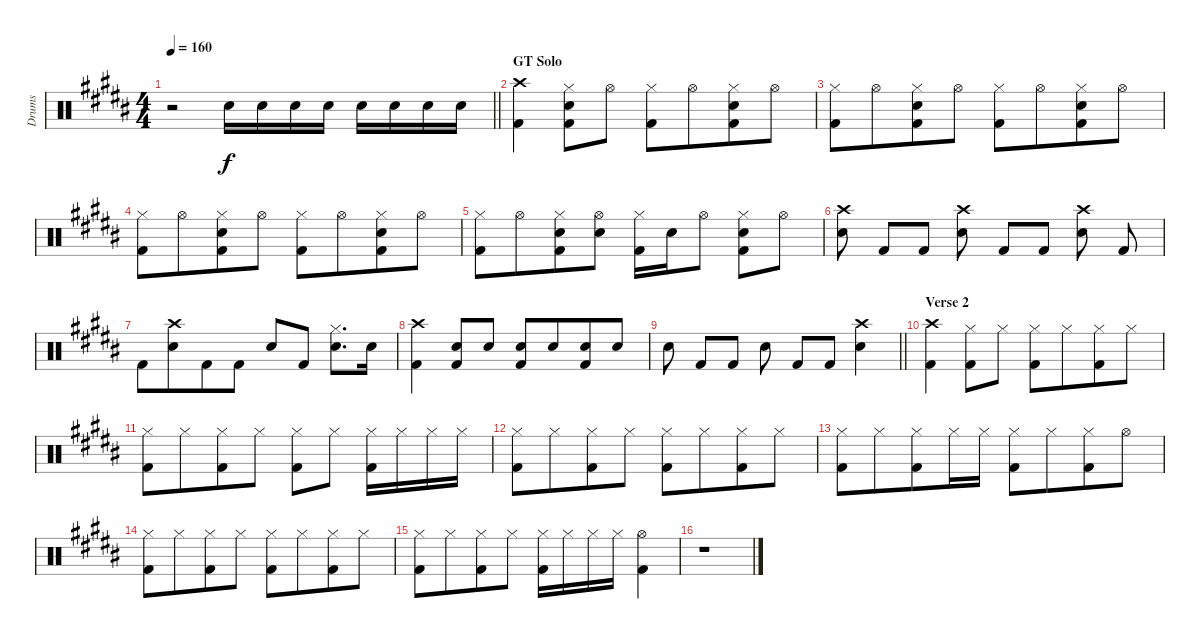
\track ("Drums" "Drums") {instrument percussion}
\staff {score}
\articulation defaults
\ts (4 4)
\tempo 160
\clef neutral
\barLineRight lightlight
\ks b
r.2{dy f} "Snare (hit) 2".16 "Snare (hit) 2".16 "Snare (hit) 2".16 "Snare (hit) 2".16 "Snare (hit) 2".16 "Snare (hit) 2".16 "Snare (hit) 2".16 "Snare (hit) 2".16 |
\section ("" "GT Solo")
("Kick (hit) 2" "Crash high (hit)").4 ("Hi-Hat (closed)" "Snare (hit) 2" "Kick (hit) 2").8 "Hi-Hat (open)".8 ("Hi-Hat (closed)" "Kick (hit) 2").8 "Hi-Hat (open)".8{beam merge} ("Hi-Hat (closed)" "Snare (hit) 2" "Kick (hit) 2").8 "Hi-Hat (open)".8 |
("Hi-Hat (closed)" "Kick (hit) 2").8 "Hi-Hat (open)".8{beam merge} ("Hi-Hat (closed)" "Snare (hit) 2" "Kick (hit) 2").8 "Hi-Hat (open)".8 ("Hi-Hat (closed)" "Kick (hit) 2").8 "Hi-Hat (open)".8{beam merge} ("Hi-Hat (closed)" "Snare (hit) 2" "Kick (hit) 2").8 "Hi-Hat (open)".8 |
("Hi-Hat (closed)" "Kick (hit) 2").8 "Hi-Hat (open)".8{beam merge} ("Hi-Hat (closed)" "Snare (hit) 2" "Kick (hit) 2").8 "Hi-Hat (open)".8 ("Hi-Hat (closed)" "Kick (hit) 2").8 "Hi-Hat (open)".8{beam merge} ("Hi-Hat (closed)" "Snare (hit) 2" "Kick (hit) 2").8 "Hi-Hat (open)".8 |
("Hi-Hat (closed)" "Kick (hit) 2").8 "Hi-Hat (open)".8{beam merge} ("Hi-Hat (closed)" "Snare (hit) 2" "Kick (hit) 2").8 ("Hi-Hat (open)" "Snare (hit) 2").8 ("Hi-Hat (closed)" "Kick (hit) 2").16 "Snare (hit) 2".16 "Hi-Hat (open)".8 ("Hi-Hat (closed)" "Snare (hit) 2" "Kick (hit) 2").8 "Hi-Hat (open)".8 |
("Snare (hit) 2" "Crash high (hit)").8{beam Down beam split} "Kick (hit) 2".8{beam merge} "Kick (hit) 2".8{beam split} ("Snare (hit) 2" "Crash high (hit)").8 "Kick (hit) 2".8 "Kick (hit) 2".8 ("Snare (hit) 2" "Crash high (hit)").8{beam split} "Kick (hit) 2".8 |
"Kick (hit) 2".8 ("Snare (hit) 2" "Crash high (hit)").8{beam merge} "Kick (hit) 2".8 "Kick (hit) 2".8 "Snare (hit) 2".8 "Kick (hit) 2".8 ("Hi-Hat (closed)" "Snare (hit) 2").8{d} "Snare (hit) 2".16 |
("Kick (hit) 2" "Crash high (hit)").4 ("Snare (hit) 2" "Kick (hit) 2").8 "Snare (hit) 2".8 ("Snare (hit) 2" "Kick (hit) 2").8 "Snare (hit) 2".8{beam merge} ("Snare (hit) 2" "Kick (hit) 2").8 "Snare (hit) 2".8 |
\barLineRight lightlight "Snare (hit) 2".8{beam split} "Kick (hit) 2".8{beam merge} "Kick (hit) 2".8{beam split} "Snare (hit) 2".8 "Kick (hit) 2".8 "Kick (hit) 2".8
("Snare (hit) 2" "Crash high (hit)").4 |
\section ("" "Verse 2")
("Kick (hit) 2" "Crash high (hit)").4 ("Hi-Hat (closed)" "Kick (hit) 2").8 "Hi-Hat (closed)".8 ("Hi-Hat (closed)" "Kick (hit) 2").8 "Hi-Hat (closed)".8{beam merge} ("Hi-Hat (closed)" "Kick (hit) 2").8 "Hi-Hat (closed)".8 |
("Hi-Hat (closed)" "Kick (hit) 2").8 "Hi-Hat (closed)".8{beam merge} ("Hi-Hat (closed)" "Kick (hit) 2").8 "Hi-Hat (closed)".8 ("Hi-Hat (closed)" "Kick (hit) 2").8 "Hi-Hat (closed)".8 ("Hi-Hat (closed)" "Kick (hit) 2").16 "Hi-Hat (closed)".16 "Hi-Hat (closed)".16 "Hi-Hat (closed)".16 |
("Hi-Hat (closed)" "Kick (hit) 2").8 "Hi-Hat (closed)".8{beam merge} ("Hi-Hat (closed)" "Kick (hit) 2").8 "Hi-Hat (closed)".8 ("Hi-Hat (closed)" "Kick (hit) 2").8 "Hi-Hat (closed)".8{beam merge} ("Hi-Hat (closed)" "Kick (hit) 2").8 "Hi-Hat (closed)".8 |
("Hi-Hat (closed)" "Kick (hit) 2").8 "Hi-Hat (closed)".8{beam merge} ("Hi-Hat (closed)" "Kick (hit) 2").8 "Hi-Hat (closed)".16 "Hi-Hat (closed)".16 ("Hi-Hat (closed)" "Kick (hit) 2").8 "Hi-Hat (closed)".8{beam merge} ("Hi-Hat (closed)" "Kick (hit) 2").8 "Hi-Hat (open)".8 |
("Hi-Hat (closed)" "Kick (hit) 2").8 "Hi-Hat (closed)".8{beam merge} ("Hi-Hat (closed)" "Kick (hit) 2").8 "Hi-Hat (closed)".8 ("Hi-Hat (closed)" "Kick (hit) 2").8 "Hi-Hat (closed)".8{beam merge} ("Hi-Hat (closed)" "Kick (hit) 2").8 "Hi-Hat (closed)".8 |
("Hi-Hat (closed)" "Kick (hit) 2").8 "Hi-Hat (closed)".8{beam merge} ("Hi-Hat (closed)" "Kick (hit) 2").8 "Hi-Hat (closed)".8 ("Hi-Hat (closed)" "Kick (hit) 2").16 "Hi-Hat (closed)".16 "Hi-Hat (closed)".16 "Hi-Hat (closed)".16 ("Hi-Hat (open)" "Kick (hit) 2").4 |
r.1
